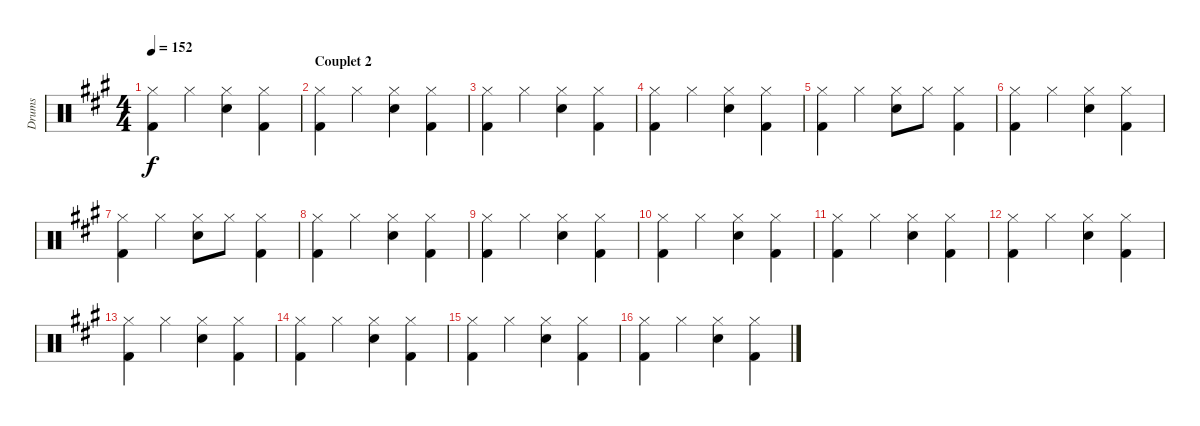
\track ("Drums" "Drums") {instrument percussion}
\staff {score}
\articulation defaults
\ts (4 4)
\tempo 152
\clef neutral
\ks a
("Hi-Hat (closed)" "Kick (hit) 2").4{dy f} "Hi-Hat (closed)".4 ("Hi-Hat (closed)" "Electric Snare (hit)").4 ("Hi-Hat (closed)" "Kick (hit) 2").4 |
\section ("" "Couplet 2")
("Hi-Hat (closed)" "Kick (hit) 2").4 "Hi-Hat (closed)".4 ("Hi-Hat (closed)" "Electric Snare (hit)").4 ("Hi-Hat (closed)" "Kick (hit) 2").4 |
("Hi-Hat (closed)" "Kick (hit) 2").4 "Hi-Hat (closed)".4 ("Hi-Hat (closed)" "Electric Snare (hit)").4 ("Hi-Hat (closed)" "Kick (hit) 2").4 |
("Hi-Hat (closed)" "Kick (hit) 2").4 "Hi-Hat (closed)".4 ("Hi-Hat (closed)" "Electric Snare (hit)").4 ("Hi-Hat (closed)" "Kick (hit) 2").4 |
("Hi-Hat (closed)" "Kick (hit) 2").4 "Hi-Hat (closed)".4 ("Hi-Hat (closed)" "Electric Snare (hit)").8 "Hi-Hat (closed)".8 ("Hi-Hat (closed)" "Kick (hit) 2").4 |
("Hi-Hat (closed)" "Kick (hit) 2").4 "Hi-Hat (closed)".4 ("Hi-Hat (closed)" "Electric Snare (hit)").4 ("Hi-Hat (closed)" "Kick (hit) 2").4 |
("Hi-Hat (closed)" "Kick (hit) 2").4 "Hi-Hat (closed)".4 ("Hi-Hat (closed)" "Electric Snare (hit)").8 "Hi-Hat (closed)".8 ("Hi-Hat (closed)" "Kick (hit) 2").4 |
("Hi-Hat (closed)" "Kick (hit) 2").4 "Hi-Hat (closed)".4 ("Hi-Hat (closed)" "Electric Snare (hit)").4 ("Hi-Hat (closed)" "Kick (hit) 2").4 |
("Hi-Hat (closed)" "Kick (hit) 2").4 "Hi-Hat (closed)".4 ("Hi-Hat (closed)" "Electric Snare (hit)").4 ("Hi-Hat (closed)" "Kick (hit) 2").4 |
("Hi-Hat (closed)" "Kick (hit) 2").4 "Hi-Hat (closed)".4 ("Hi-Hat (closed)" "Electric Snare (hit)").4 ("Hi-Hat (closed)" "Kick (hit) 2").4 |
("Hi-Hat (closed)" "Kick (hit) 2").4 "Hi-Hat (closed)".4 ("Hi-Hat (closed)" "Electric Snare (hit)").4 ("Hi-Hat (closed)" "Kick (hit) 2").4 |
("Hi-Hat (closed)" "Kick (hit) 2").4 "Hi-Hat (closed)".4 ("Hi-Hat (closed)" "Electric Snare (hit)").4 ("Hi-Hat (closed)" "Kick (hit) 2").4 |
("Hi-Hat (closed)" "Kick (hit) 2").4 "Hi-Hat (closed)".4 ("Hi-Hat (closed)" "Electric Snare (hit)").4 ("Hi-Hat (closed)" "Kick (hit) 2").4 |
("Hi-Hat (closed)" "Kick (hit) 2").4 "Hi-Hat (closed)".4 ("Hi-Hat (closed)" "Electric Snare (hit)").4 ("Hi-Hat (closed)" "Kick (hit) 2").4 |
("Hi-Hat (closed)" "Kick (hit) 2").4 "Hi-Hat (closed)".4 ("Hi-Hat (closed)" "Electric Snare (hit)").4 ("Hi-Hat (closed)" "Kick (hit) 2").4 |
("Hi-Hat (closed)" "Kick (hit) 2").4 "Hi-Hat (closed)".4 ("Hi-Hat (closed)" "Electric Snare (hit)").4 ("Hi-Hat (closed)" "Kick (hit) 2").4
